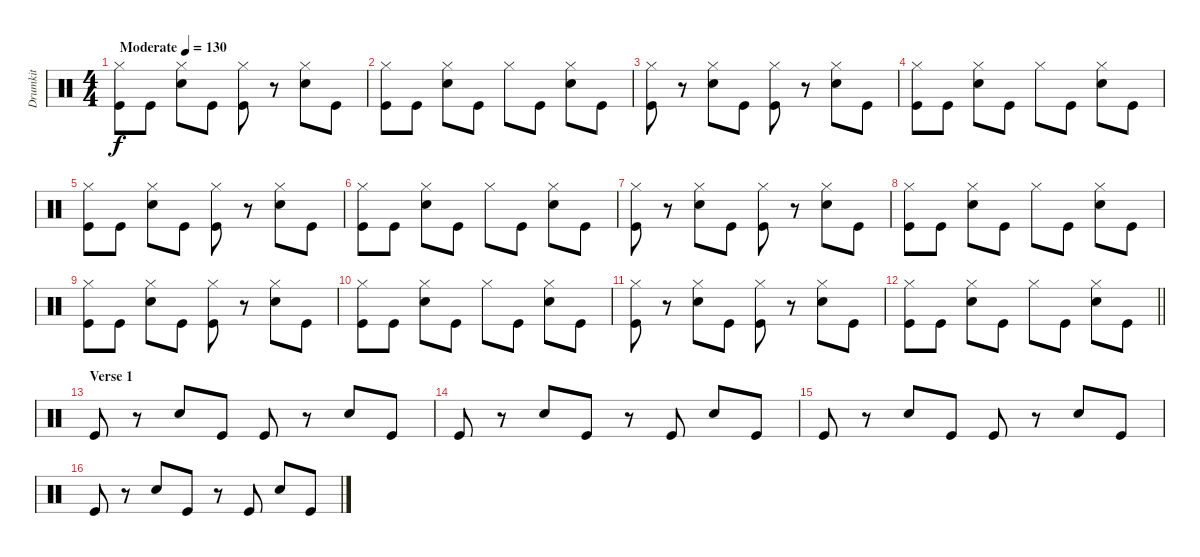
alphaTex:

\track ("Drumkit" "Drumkit") {instrument percussion}
\staff {score}
\articulation defaults
\ts (4 4)
\tempo (130 "Moderate")
\clef neutral
\ks c
("Kick (hit)" "Hi-Hat (closed)").8{dy f} "Kick (hit)".8 ("Snare (hit) 2" "Hi-Hat (closed)").8 "Kick (hit)".8 ("Kick (hit)" "Hi-Hat (closed)").8 r.8 ("Snare (hit) 2" "Hi-Hat (closed)").8 "Kick (hit)".8 |
("Kick (hit)" "Hi-Hat (closed)").8 "Kick (hit)".8 ("Snare (hit) 2" "Hi-Hat (closed)").8 "Kick (hit)".8 "Hi-Hat (closed)".8 "Kick (hit)".8 ("Snare (hit) 2" "Hi-Hat (closed)").8 "Kick (hit)".8 |
("Kick (hit)" "Hi-Hat (closed)").8 r.8 ("Snare (hit) 2" "Hi-Hat (closed)").8 "Kick (hit)".8 ("Kick (hit)" "Hi-Hat (closed)").8 r.8 ("Snare (hit) 2" "Hi-Hat (closed)").8 "Kick (hit)".8 |
("Kick (hit)" "Hi-Hat (closed)").8 "Kick (hit)".8 ("Snare (hit) 2" "Hi-Hat (closed)").8 "Kick (hit)".8 "Hi-Hat (closed)".8 "Kick (hit)".8 ("Snare (hit) 2" "Hi-Hat (closed)").8 "Kick (hit)".8 |
("Kick (hit)" "Hi-Hat (closed)").8 "Kick (hit)".8 ("Snare (hit) 2" "Hi-Hat (closed)").8 "Kick (hit)".8 ("Kick (hit)" "Hi-Hat (closed)").8 r.8 ("Snare (hit) 2" "Hi-Hat (closed)").8 "Kick (hit)".8 |
("Kick (hit)" "Hi-Hat (closed)").8 "Kick (hit)".8 ("Snare (hit) 2" "Hi-Hat (closed)").8 "Kick (hit)".8 "Hi-Hat (closed)".8 "Kick (hit)".8 ("Snare (hit) 2" "Hi-Hat (closed)").8 "Kick (hit)".8 |
("Kick (hit)" "Hi-Hat (closed)").8 r.8 ("Snare (hit) 2" "Hi-Hat (closed)").8 "Kick (hit)".8 ("Kick (hit)" "Hi-Hat (closed)").8 r.8 ("Snare (hit) 2" "Hi-Hat (closed)").8 "Kick (hit)".8 |
("Kick (hit)" "Hi-Hat (closed)").8 "Kick (hit)".8 ("Snare (hit) 2" "Hi-Hat (closed)").8 "Kick (hit)".8 "Hi-Hat (closed)".8 "Kick (hit)".8 ("Snare (hit) 2" "Hi-Hat (closed)").8 "Kick (hit)".8 |
("Kick (hit)" "Hi-Hat (closed)").8 "Kick (hit)".8 ("Snare (hit) 2" "Hi-Hat (closed)").8 "Kick (hit)".8 ("Kick (hit)" "Hi-Hat (closed)").8 r.8 ("Snare (hit) 2" "Hi-Hat (closed)").8 "Kick (hit)".8 |
("Kick (hit)" "Hi-Hat (closed)").8 "Kick (hit)".8 ("Snare (hit) 2" "Hi-Hat (closed)").8 "Kick (hit)".8 "Hi-Hat (closed)".8 "Kick (hit)".8 ("Snare (hit) 2" "Hi-Hat (closed)").8 "Kick (hit)".8 |
("Kick (hit)" "Hi-Hat (closed)").8 r.8 ("Snare (hit) 2" "Hi-Hat (closed)").8 "Kick (hit)".8 ("Kick (hit)" "Hi-Hat (closed)").8 r.8 ("Snare (hit) 2" "Hi-Hat (closed)").8 "Kick (hit)".8 |
\barLineRight lightlight
("Kick (hit)" "Hi-Hat (closed)").8 "Kick (hit)".8 ("Snare (hit) 2" "Hi-Hat (closed)").8 "Kick (hit)".8 "Hi-Hat (closed)".8 "Kick (hit)".8 ("Snare (hit) 2" "Hi-Hat (closed)").8 "Kick (hit)".8 |
\section ("" "Verse 1")
"Kick (hit)".8 r.8 "Snare (hit) 2".8 "Kick (hit)".8 "Kick (hit)".8 r.8 "Snare (hit) 2".8 "Kick (hit)".8 |
"Kick (hit)".8 r.8 "Snare (hit) 2".8 "Kick (hit)".8 r.8 "Kick (hit)".8 "Snare (hit) 2".8 "Kick (hit)".8 |
"Kick (hit)".8 r.8 "Snare (hit) 2".8 "Kick (hit)".8 "Kick (hit)".8 r.8 "Snare (hit) 2".8 "Kick (hit)".8 |
"Kick (hit)".8 r.8 "Snare (hit) 2".8 "Kick (hit)".8 r.8 "Kick (hit)".8 "Snare (hit) 2".8 "Kick (hit)".8
